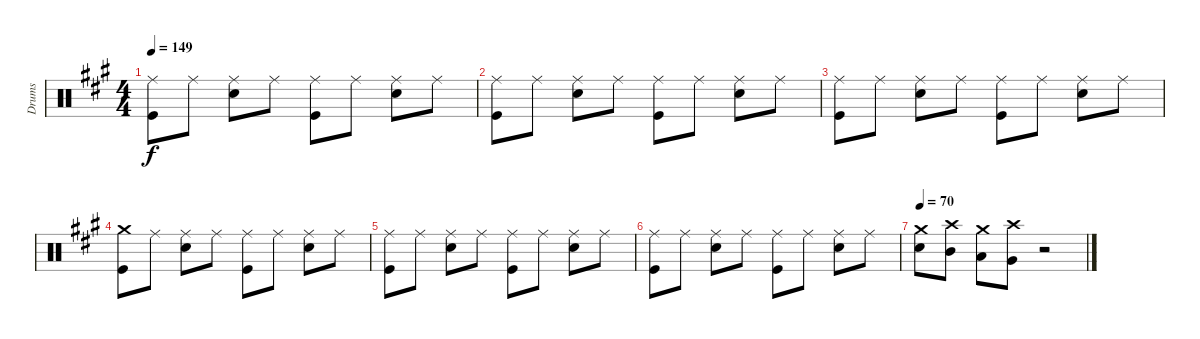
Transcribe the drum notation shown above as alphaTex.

\track ("Drums" "Drums") {instrument percussion}
\staff {score}
\articulation defaults
\ts (4 4)
\tempo 149
\clef neutral
\ks f#minor
("Ride (middle)" "Kick (hit)").8{dy f} "Ride (middle)".8 ("Ride (middle)" "Snare (hit) 2").8 "Ride (middle)".8 ("Ride (middle)" "Kick (hit)").8 "Ride (middle)".8 ("Ride (middle)" "Snare (hit) 2").8 "Ride (middle)".8 |
("Ride (middle)" "Kick (hit)").8 "Ride (middle)".8 ("Ride (middle)" "Snare (hit) 2").8 "Ride (middle)".8 ("Ride (middle)" "Kick (hit)").8 "Ride (middle)".8 ("Ride (middle)" "Snare (hit) 2").8 "Ride (middle)".8 |
("Ride (middle)" "Kick (hit)").8 "Ride (middle)".8 ("Ride (middle)" "Snare (hit) 2").8 "Ride (middle)".8 ("Ride (middle)" "Kick (hit)").8 "Ride (middle)".8 ("Ride (middle)" "Snare (hit) 2").8 "Ride (middle)".8 |
("Crash medium (hit)" "Kick (hit)").8 "Ride (middle)".8 ("Ride (middle)" "Snare (hit) 2").8 "Ride (middle)".8 ("Ride (middle)" "Kick (hit)").8 "Ride (middle)".8 ("Ride (middle)" "Snare (hit) 2").8 "Ride (middle)".8 |
("Ride (middle)" "Kick (hit)").8 "Ride (middle)".8 ("Ride (middle)" "Snare (hit) 2").8 "Ride (middle)".8 ("Ride (middle)" "Kick (hit)").8 "Ride (middle)".8 ("Ride (middle)" "Snare (hit) 2").8 "Ride (middle)".8 |
("Ride (middle)" "Kick (hit)").8 "Ride (middle)".8 ("Ride (middle)" "Snare (hit) 2").8 "Ride (middle)".8 ("Ride (middle)" "Kick (hit)").8 "Ride (middle)".8 ("Ride (middle)" "Snare (hit) 2").8 "Ride (middle)".8 |
\tempo 70
("Crash medium (hit)" "Snare (hit) 2").8 ("Crash high (hit)" "Mid Tom (hit)").8 ("Crash medium (hit)" "Low Tom (hit)").8 ("Crash high (hit)" "Very Low Tom (hit)").8 r.2
